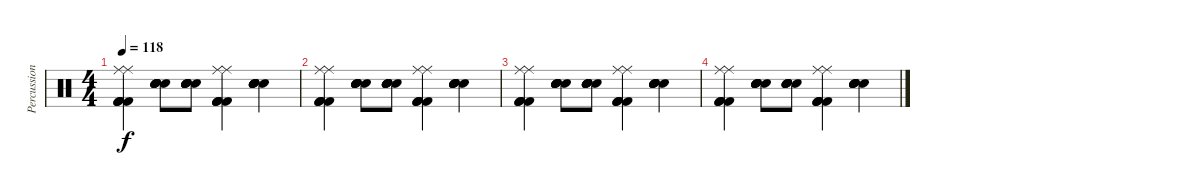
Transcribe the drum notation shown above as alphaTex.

\track ("Percussion" "Percussion") {instrument percussion}
\staff {score}
\articulation defaults
\ts (4 4)
\tempo 118
\clef neutral
\ks c
("Ride (middle)" "Kick (hit) 2" "Kick (hit) 2" "Kick (hit) 2" "Kick (hit) 2" "Ride (middle)").4{dy f} ("Electric Snare (hit)" "Electric Snare (hit)" "Electric Snare (hit)" "Electric Snare (hit)" "Electric Snare (hit)" "Electric Snare (hit)").8 ("Electric Snare (hit)" "Electric Snare (hit)" "Electric Snare (hit)" "Electric Snare (hit)" "Electric Snare (hit)" "Electric Snare (hit)").8 ("Ride (middle)" "Kick (hit) 2" "Kick (hit) 2" "Kick (hit) 2" "Kick (hit) 2" "Ride (middle)").4 ("Electric Snare (hit)" "Electric Snare (hit)" "Electric Snare (hit)" "Electric Snare (hit)" "Electric Snare (hit)" "Electric Snare (hit)").4 |
("Ride (middle)" "Kick (hit) 2" "Kick (hit) 2" "Kick (hit) 2" "Kick (hit) 2" "Ride (middle)").4 ("Electric Snare (hit)" "Electric Snare (hit)" "Electric Snare (hit)" "Electric Snare (hit)" "Electric Snare (hit)" "Electric Snare (hit)").8 ("Electric Snare (hit)" "Electric Snare (hit)" "Electric Snare (hit)" "Electric Snare (hit)" "Electric Snare (hit)" "Electric Snare (hit)").8 ("Ride (middle)" "Kick (hit) 2" "Kick (hit) 2" "Kick (hit) 2" "Kick (hit) 2" "Ride (middle)").4 ("Electric Snare (hit)" "Electric Snare (hit)" "Electric Snare (hit)" "Electric Snare (hit)" "Electric Snare (hit)" "Electric Snare (hit)").4 |
("Ride (middle)" "Kick (hit) 2" "Kick (hit) 2" "Kick (hit) 2" "Kick (hit) 2" "Ride (middle)").4 ("Electric Snare (hit)" "Electric Snare (hit)" "Electric Snare (hit)" "Electric Snare (hit)" "Electric Snare (hit)" "Electric Snare (hit)").8 ("Electric Snare (hit)" "Electric Snare (hit)" "Electric Snare (hit)" "Electric Snare (hit)" "Electric Snare (hit)" "Electric Snare (hit)").8 ("Ride (middle)" "Kick (hit) 2" "Kick (hit) 2" "Kick (hit) 2" "Kick (hit) 2" "Ride (middle)").4 ("Electric Snare (hit)" "Electric Snare (hit)" "Electric Snare (hit)" "Electric Snare (hit)" "Electric Snare (hit)" "Electric Snare (hit)").4 |
("Ride (middle)" "Kick (hit) 2" "Kick (hit) 2" "Kick (hit) 2" "Kick (hit) 2" "Ride (middle)").4 ("Electric Snare (hit)" "Electric Snare (hit)" "Electric Snare (hit)" "Electric Snare (hit)" "Electric Snare (hit)" "Electric Snare (hit)").8 ("Electric Snare (hit)" "Electric Snare (hit)" "Electric Snare (hit)" "Electric Snare (hit)" "Electric Snare (hit)" "Electric Snare (hit)").8 ("Ride (middle)" "Kick (hit) 2" "Kick (hit) 2" "Kick (hit) 2" "Kick (hit) 2" "Ride (middle)").4 ("Electric Snare (hit)" "Electric Snare (hit)" "Electric Snare (hit)" "Electric Snare (hit)" "Electric Snare (hit)" "Electric Snare (hit)").4
